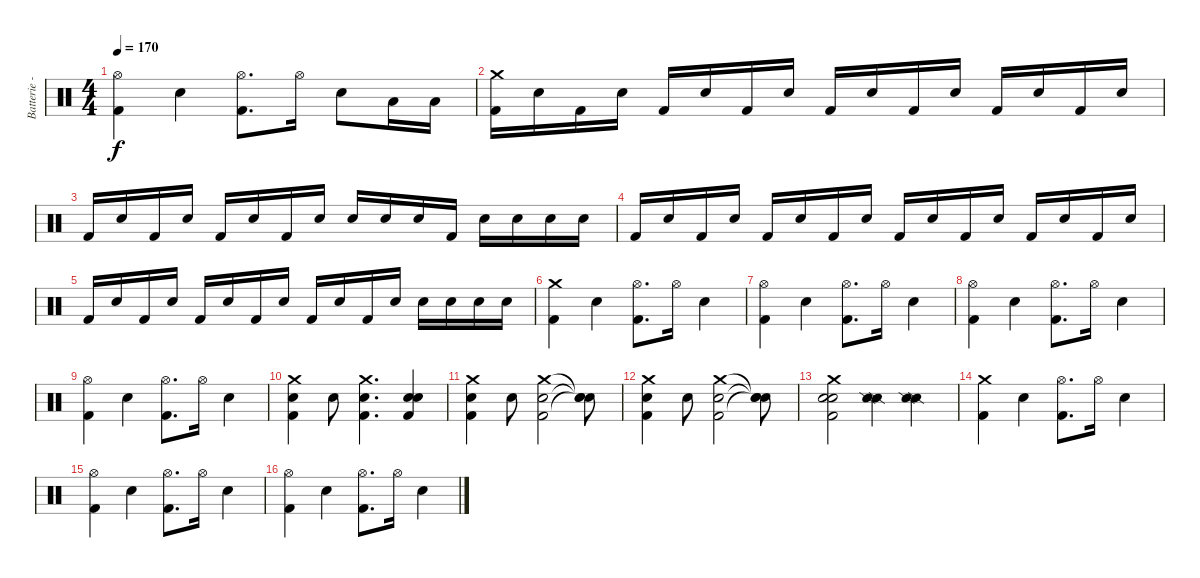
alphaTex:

\track ("Batterie - Anders Johansson" "Batterie -") {instrument percussion}
\staff {score}
\articulation defaults
\ts (4 4)
\tempo 170
\clef neutral
\ks c
("Hi-Hat (open)" "Kick (hit) 2").4{dy f} "Electric Snare (hit)".4 ("Hi-Hat (open)" "Kick (hit) 2").8{d} "Hi-Hat (open)".16 "Electric Snare (hit)".8 "Low Tom (hit)".16 "Low Tom (hit)".16 |
("Crash medium (hit)" "Kick (hit) 2").16 "Electric Snare (hit)".16 "Kick (hit) 2".16 "Electric Snare (hit)".16 "Kick (hit) 2".16 "Electric Snare (hit)".16 "Kick (hit) 2".16 "Electric Snare (hit)".16 "Kick (hit) 2".16 "Electric Snare (hit)".16 "Kick (hit) 2".16 "Electric Snare (hit)".16 "Kick (hit) 2".16 "Electric Snare (hit)".16 "Kick (hit) 2".16 "Electric Snare (hit)".16 |
"Kick (hit) 2".16 "Electric Snare (hit)".16 "Kick (hit) 2".16 "Electric Snare (hit)".16 "Kick (hit) 2".16 "Electric Snare (hit)".16 "Kick (hit) 2".16 "Electric Snare (hit)".16 "Electric Snare (hit)".16 "Electric Snare (hit)".16 "Electric Snare (hit)".16 "Kick (hit) 2".16 "Electric Snare (hit)".16 "Electric Snare (hit)".16 "Electric Snare (hit)".16 "Electric Snare (hit)".16 |
"Kick (hit) 2".16 "Electric Snare (hit)".16 "Kick (hit) 2".16 "Electric Snare (hit)".16 "Kick (hit) 2".16 "Electric Snare (hit)".16 "Kick (hit) 2".16 "Electric Snare (hit)".16 "Kick (hit) 2".16 "Electric Snare (hit)".16 "Kick (hit) 2".16 "Electric Snare (hit)".16 "Kick (hit) 2".16 "Electric Snare (hit)".16 "Kick (hit) 2".16 "Electric Snare (hit)".16 |
"Kick (hit) 2".16 "Electric Snare (hit)".16 "Kick (hit) 2".16 "Electric Snare (hit)".16 "Kick (hit) 2".16 "Electric Snare (hit)".16 "Kick (hit) 2".16 "Electric Snare (hit)".16 "Kick (hit) 2".16 "Electric Snare (hit)".16 "Kick (hit) 2".16 "Electric Snare (hit)".16 "Electric Snare (hit)".16 "Electric Snare (hit)".16 "Electric Snare (hit)".16 "Electric Snare (hit)".16 |
("Crash medium (hit)" "Kick (hit) 2").4 "Electric Snare (hit)".4 ("Hi-Hat (open)" "Kick (hit) 2").8{d} "Hi-Hat (open)".16 "Electric Snare (hit)".4 |
("Hi-Hat (open)" "Kick (hit) 2").4 "Electric Snare (hit)".4 ("Hi-Hat (open)" "Kick (hit) 2").8{d} "Hi-Hat (open)".16 "Electric Snare (hit)".4 |
("Hi-Hat (open)" "Kick (hit) 2").4 "Electric Snare (hit)".4 ("Hi-Hat (open)" "Kick (hit) 2").8{d} "Hi-Hat (open)".16 "Electric Snare (hit)".4 |
("Hi-Hat (open)" "Kick (hit) 2").4 "Electric Snare (hit)".4 ("Hi-Hat (open)" "Kick (hit) 2").8{d} "Hi-Hat (open)".16 "Electric Snare (hit)".4 |
("Crash medium (hit)" "Electric Snare (hit)" "Kick (hit) 2").4 "Electric Snare (hit)".8 ("Crash medium (hit)" "Electric Snare (hit)" "Kick (hit) 2").4{d} ("Electric Snare (hit)" "Electric Snare (hit)" "Kick (hit) 2").4 |
("Crash medium (hit)" "Electric Snare (hit)" "Kick (hit) 2").4 "Electric Snare (hit)".8 ("Crash medium (hit)" "Electric Snare (hit)" "Kick (hit) 2").2 ("Snare (hit)"{t} "Snare (hit)"{t} "Snare (hit)"{t}).8 |
("Crash medium (hit)" "Electric Snare (hit)" "Kick (hit) 2").4 "Electric Snare (hit)".8 ("Crash medium (hit)" "Electric Snare (hit)" "Kick (hit) 2").2 ("Snare (hit)"{t} "Snare (hit)"{t} "Snare (hit)"{t}).8 |
("Crash medium (hit)" "Electric Snare (hit)" "Electric Snare (hit)" "Kick (hit) 2").2 ("Snare (side stick) 2" "Snare (side stick) 2").4 ("Snare (side stick) 2" "Snare (side stick) 2").4 |
("Crash medium (hit)" "Kick (hit) 2").4 "Electric Snare (hit)".4 ("Hi-Hat (open)" "Kick (hit) 2").8{d} "Hi-Hat (open)".16 "Electric Snare (hit)".4 |
("Hi-Hat (open)" "Kick (hit) 2").4 "Electric Snare (hit)".4 ("Hi-Hat (open)" "Kick (hit) 2").8{d} "Hi-Hat (open)".16 "Electric Snare (hit)".4 |
("Hi-Hat (open)" "Kick (hit) 2").4 "Electric Snare (hit)".4 ("Hi-Hat (open)" "Kick (hit) 2").8{d} "Hi-Hat (open)".16 "Electric Snare (hit)".4
